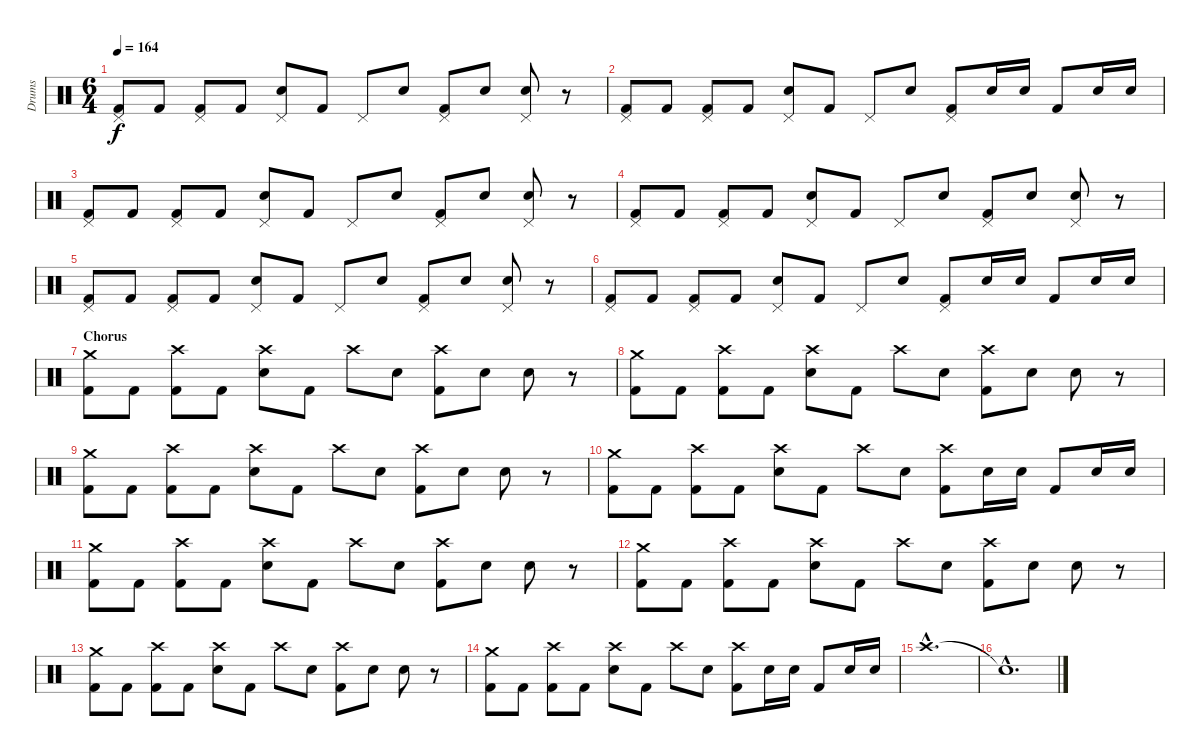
\track ("Drums" "Drums") {instrument percussion}
\staff {score}
\articulation defaults
\ts (6 4)
\tempo 164
\clef neutral
\ks c
("Pedal Hi-Hat (hit)" "Kick (hit) 2").8{dy f} "Kick (hit) 2".8 ("Pedal Hi-Hat (hit)" "Kick (hit) 2").8 "Kick (hit) 2".8 ("Pedal Hi-Hat (hit)" "Electric Snare (hit)").8 "Kick (hit) 2".8 "Pedal Hi-Hat (hit)".8 "Electric Snare (hit)".8 ("Pedal Hi-Hat (hit)" "Kick (hit) 2").8 "Electric Snare (hit)".8 ("Pedal Hi-Hat (hit)" "Electric Snare (hit)").8 r.8 |
("Pedal Hi-Hat (hit)" "Kick (hit) 2").8 "Kick (hit) 2".8 ("Pedal Hi-Hat (hit)" "Kick (hit) 2").8 "Kick (hit) 2".8 ("Pedal Hi-Hat (hit)" "Electric Snare (hit)").8 "Kick (hit) 2".8 "Pedal Hi-Hat (hit)".8 "Electric Snare (hit)".8 ("Pedal Hi-Hat (hit)" "Kick (hit) 2").8 "Electric Snare (hit)".16 "Electric Snare (hit)".16 "Kick (hit) 2".8 "Electric Snare (hit)".16 "Electric Snare (hit)".16 |
("Pedal Hi-Hat (hit)" "Kick (hit) 2").8 "Kick (hit) 2".8 ("Pedal Hi-Hat (hit)" "Kick (hit) 2").8 "Kick (hit) 2".8 ("Pedal Hi-Hat (hit)" "Electric Snare (hit)").8 "Kick (hit) 2".8 "Pedal Hi-Hat (hit)".8 "Electric Snare (hit)".8 ("Pedal Hi-Hat (hit)" "Kick (hit) 2").8 "Electric Snare (hit)".8 ("Pedal Hi-Hat (hit)" "Electric Snare (hit)").8 r.8 |
("Pedal Hi-Hat (hit)" "Kick (hit) 2").8 "Kick (hit) 2".8 ("Pedal Hi-Hat (hit)" "Kick (hit) 2").8 "Kick (hit) 2".8 ("Pedal Hi-Hat (hit)" "Electric Snare (hit)").8 "Kick (hit) 2".8 "Pedal Hi-Hat (hit)".8 "Electric Snare (hit)".8 ("Pedal Hi-Hat (hit)" "Kick (hit) 2").8 "Electric Snare (hit)".8 ("Pedal Hi-Hat (hit)" "Electric Snare (hit)").8 r.8 |
("Pedal Hi-Hat (hit)" "Kick (hit) 2").8 "Kick (hit) 2".8 ("Pedal Hi-Hat (hit)" "Kick (hit) 2").8 "Kick (hit) 2".8 ("Pedal Hi-Hat (hit)" "Electric Snare (hit)").8 "Kick (hit) 2".8 "Pedal Hi-Hat (hit)".8 "Electric Snare (hit)".8 ("Pedal Hi-Hat (hit)" "Kick (hit) 2").8 "Electric Snare (hit)".8 ("Pedal Hi-Hat (hit)" "Electric Snare (hit)").8 r.8 |
("Pedal Hi-Hat (hit)" "Kick (hit) 2").8 "Kick (hit) 2".8 ("Pedal Hi-Hat (hit)" "Kick (hit) 2").8 "Kick (hit) 2".8 ("Pedal Hi-Hat (hit)" "Electric Snare (hit)").8 "Kick (hit) 2".8 "Pedal Hi-Hat (hit)".8 "Electric Snare (hit)".8 ("Pedal Hi-Hat (hit)" "Kick (hit) 2").8 "Electric Snare (hit)".16 "Electric Snare (hit)".16 "Kick (hit) 2".8 "Electric Snare (hit)".16 "Electric Snare (hit)".16 |
\section ("" "Chorus")
("Crash medium (hit)" "Kick (hit) 2").8 "Kick (hit) 2".8 ("Crash high (hit)" "Kick (hit) 2").8 "Kick (hit) 2".8 ("Crash high (hit)" "Electric Snare (hit)").8 "Kick (hit) 2".8 "Crash high (hit)".8 "Electric Snare (hit)".8 ("Crash high (hit)" "Kick (hit) 2").8 "Electric Snare (hit)".8 "Electric Snare (hit)".8 r.8 |
("Crash medium (hit)" "Kick (hit) 2").8 "Kick (hit) 2".8 ("Crash high (hit)" "Kick (hit) 2").8 "Kick (hit) 2".8 ("Crash high (hit)" "Electric Snare (hit)").8 "Kick (hit) 2".8 "Crash high (hit)".8 "Electric Snare (hit)".8 ("Crash high (hit)" "Kick (hit) 2").8 "Electric Snare (hit)".8 "Electric Snare (hit)".8 r.8 |
("Crash medium (hit)" "Kick (hit) 2").8 "Kick (hit) 2".8 ("Crash high (hit)" "Kick (hit) 2").8 "Kick (hit) 2".8 ("Crash high (hit)" "Electric Snare (hit)").8 "Kick (hit) 2".8 "Crash high (hit)".8 "Electric Snare (hit)".8 ("Crash high (hit)" "Kick (hit) 2").8 "Electric Snare (hit)".8 "Electric Snare (hit)".8 r.8 |
("Crash medium (hit)" "Kick (hit) 2").8 "Kick (hit) 2".8 ("Crash high (hit)" "Kick (hit) 2").8 "Kick (hit) 2".8 ("Crash high (hit)" "Electric Snare (hit)").8 "Kick (hit) 2".8 "Crash high (hit)".8 "Electric Snare (hit)".8 ("Crash high (hit)" "Kick (hit) 2").8 "Electric Snare (hit)".16 "Electric Snare (hit)".16 "Kick (hit) 2".8 "Electric Snare (hit)".16 "Electric Snare (hit)".16 |
("Crash medium (hit)" "Kick (hit) 2").8 "Kick (hit) 2".8 ("Crash high (hit)" "Kick (hit) 2").8 "Kick (hit) 2".8 ("Crash high (hit)" "Electric Snare (hit)").8 "Kick (hit) 2".8 "Crash high (hit)".8 "Electric Snare (hit)".8 ("Crash high (hit)" "Kick (hit) 2").8 "Electric Snare (hit)".8 "Electric Snare (hit)".8 r.8 |
("Crash medium (hit)" "Kick (hit) 2").8 "Kick (hit) 2".8 ("Crash high (hit)" "Kick (hit) 2").8 "Kick (hit) 2".8 ("Crash high (hit)" "Electric Snare (hit)").8 "Kick (hit) 2".8 "Crash high (hit)".8 "Electric Snare (hit)".8 ("Crash high (hit)" "Kick (hit) 2").8 "Electric Snare (hit)".8 "Electric Snare (hit)".8 r.8 |
("Crash medium (hit)" "Kick (hit) 2").8 "Kick (hit) 2".8 ("Crash high (hit)" "Kick (hit) 2").8 "Kick (hit) 2".8 ("Crash high (hit)" "Electric Snare (hit)").8 "Kick (hit) 2".8 "Crash high (hit)".8 "Electric Snare (hit)".8 ("Crash high (hit)" "Kick (hit) 2").8 "Electric Snare (hit)".8 "Electric Snare (hit)".8 r.8 |
("Crash medium (hit)" "Kick (hit) 2").8 "Kick (hit) 2".8 ("Crash high (hit)" "Kick (hit) 2").8 "Kick (hit) 2".8 ("Crash high (hit)" "Electric Snare (hit)").8 "Kick (hit) 2".8 "Crash high (hit)".8 "Electric Snare (hit)".8 ("Crash high (hit)" "Kick (hit) 2").8 "Electric Snare (hit)".16 "Electric Snare (hit)".16 "Kick (hit) 2".8 "Electric Snare (hit)".16 "Electric Snare (hit)".16 |
"Crash high (hit)"{hac}.1{d} |
"Snare (hit)"{hac t}.1{d}
